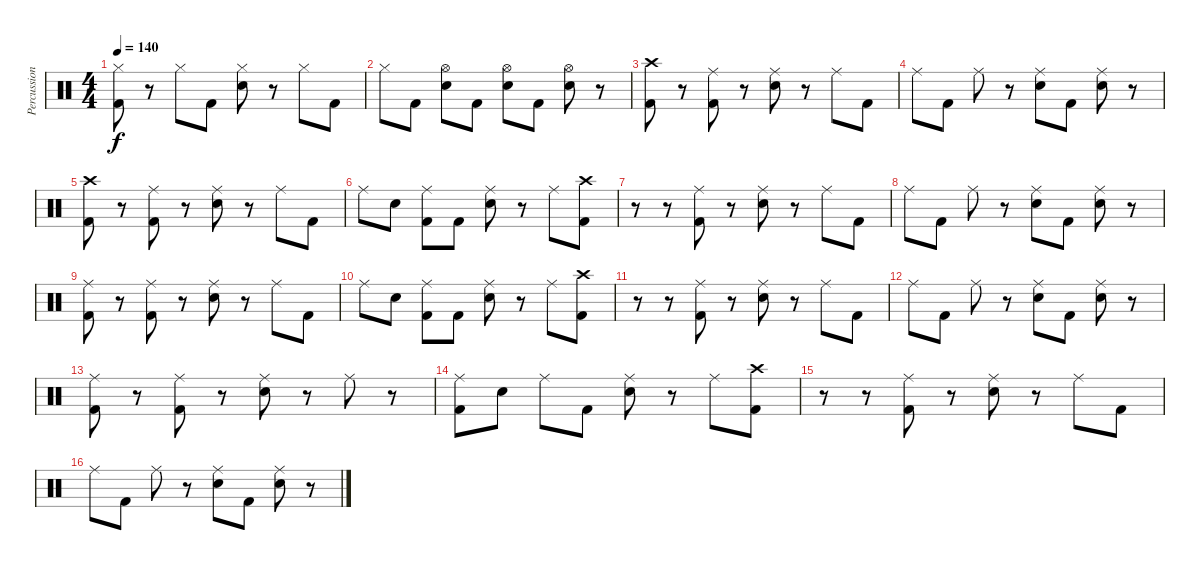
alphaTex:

\track ("Percussion" "Percussion") {instrument percussion}
\staff {score}
\articulation defaults
\ts (4 4)
\tempo 140
\clef neutral
\ks c
("Hi-Hat (closed)" "Kick (hit) 2").8{dy f} r.8 "Hi-Hat (closed)".8 "Kick (hit) 2".8 ("Hi-Hat (closed)" "Snare (hit) 2").8 r.8 "Hi-Hat (closed)".8 "Kick (hit) 2".8 |
"Hi-Hat (closed)".8 "Kick (hit) 2".8 ("Hi-Hat (open)" "Snare (hit) 2").8 "Kick (hit) 2".8 ("Hi-Hat (open)" "Snare (hit) 2").8 "Kick (hit) 2".8 ("Hi-Hat (open)" "Snare (hit) 2").8 r.8 |
("Crash high (hit)" "Kick (hit) 2").8 r.8 ("Ride (middle)" "Kick (hit) 2").8 r.8 ("Ride (middle)" "Snare (hit) 2").8 r.8 "Ride (middle)".8 "Kick (hit) 2".8 |
"Ride (middle)".8 "Kick (hit) 2".8 "Ride (middle)".8 r.8 ("Ride (middle)" "Snare (hit) 2").8 "Kick (hit) 2".8 ("Ride (middle)" "Snare (hit) 2").8 r.8 |
("Crash high (hit)" "Kick (hit) 2").8 r.8 ("Ride (middle)" "Kick (hit) 2").8 r.8 ("Ride (middle)" "Snare (hit) 2").8 r.8 "Ride (middle)".8 "Kick (hit) 2".8 |
"Ride (middle)".8 "Snare (hit) 2".8 ("Ride (middle)" "Kick (hit) 2").8 "Kick (hit) 2".8 ("Ride (middle)" "Snare (hit) 2").8 r.8 "Ride (middle)".8 ("Crash high (hit)" "Kick (hit) 2").8 |
r.8 r.8 ("Ride (middle)" "Kick (hit) 2").8 r.8 ("Ride (middle)" "Snare (hit) 2").8 r.8 "Ride (middle)".8 "Kick (hit) 2".8 |
"Ride (middle)".8 "Kick (hit) 2".8 "Ride (middle)".8 r.8 ("Ride (middle)" "Snare (hit) 2").8 "Kick (hit) 2".8 ("Ride (middle)" "Snare (hit) 2").8 r.8 |
("Ride (middle)" "Kick (hit) 2").8 r.8 ("Ride (middle)" "Kick (hit) 2").8 r.8 ("Ride (middle)" "Snare (hit) 2").8 r.8 "Ride (middle)".8 "Kick (hit) 2".8 |
"Ride (middle)".8 "Snare (hit) 2".8 ("Ride (middle)" "Kick (hit) 2").8 "Kick (hit) 2".8 ("Ride (middle)" "Snare (hit) 2").8 r.8 "Ride (middle)".8 ("Crash high (hit)" "Kick (hit) 2").8 |
r.8 r.8 ("Ride (middle)" "Kick (hit) 2").8 r.8 ("Ride (middle)" "Snare (hit) 2").8 r.8 "Ride (middle)".8 "Kick (hit) 2".8 |
"Ride (middle)".8 "Kick (hit) 2".8 "Ride (middle)".8 r.8 ("Ride (middle)" "Snare (hit) 2").8 "Kick (hit) 2".8 ("Ride (middle)" "Snare (hit) 2").8 r.8 |
("Ride (middle)" "Kick (hit) 2").8 r.8 ("Ride (middle)" "Kick (hit) 2").8 r.8 ("Ride (middle)" "Snare (hit) 2").8 r.8 "Ride (middle)".8 r.8 |
("Ride (middle)" "Kick (hit) 2").8 "Snare (hit) 2".8 "Ride (middle)".8 "Kick (hit) 2".8 ("Ride (middle)" "Snare (hit) 2").8 r.8 "Ride (middle)".8 ("Crash high (hit)" "Kick (hit) 2").8 |
r.8 r.8 ("Ride (middle)" "Kick (hit) 2").8 r.8 ("Ride (middle)" "Snare (hit) 2").8 r.8 "Ride (middle)".8 "Kick (hit) 2".8 |
"Ride (middle)".8 "Kick (hit) 2".8 "Ride (middle)".8 r.8 ("Ride (middle)" "Snare (hit) 2").8 "Kick (hit) 2".8 ("Ride (middle)" "Snare (hit) 2").8 r.8
